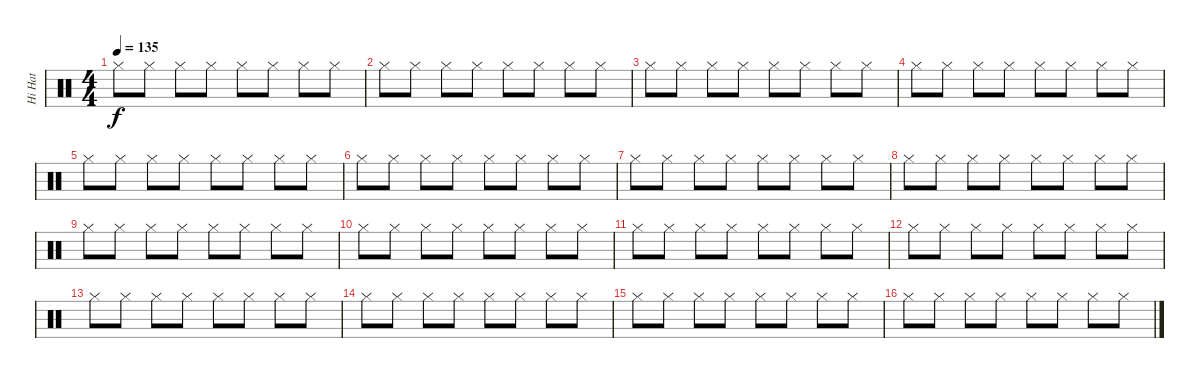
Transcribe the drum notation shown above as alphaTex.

\track ("Hi Hat" "Hi Hat") {instrument percussion}
\staff {score}
\articulation defaults
\ts (4 4)
\tempo 135
\clef neutral
\ks c "Hi-Hat (closed)".8{dy f} "Hi-Hat (closed)".8 "Hi-Hat (closed)".8 "Hi-Hat (closed)".8 "Hi-Hat (closed)".8 "Hi-Hat (closed)".8 "Hi-Hat (closed)".8 "Hi-Hat (closed)".8
|
"Hi-Hat (closed)".8 "Hi-Hat (closed)".8 "Hi-Hat (closed)".8 "Hi-Hat (closed)".8 "Hi-Hat (closed)".8 "Hi-Hat (closed)".8 "Hi-Hat (closed)".8 "Hi-Hat (closed)".8 |
"Hi-Hat (closed)".8 "Hi-Hat (closed)".8 "Hi-Hat (closed)".8 "Hi-Hat (closed)".8 "Hi-Hat (closed)".8 "Hi-Hat (closed)".8 "Hi-Hat (closed)".8 "Hi-Hat (closed)".8 |
"Hi-Hat (closed)".8 "Hi-Hat (closed)".8 "Hi-Hat (closed)".8 "Hi-Hat (closed)".8 "Hi-Hat (closed)".8 "Hi-Hat (closed)".8 "Hi-Hat (closed)".8 "Hi-Hat (closed)".8 |
"Hi-Hat (closed)".8 "Hi-Hat (closed)".8 "Hi-Hat (closed)".8 "Hi-Hat (closed)".8 "Hi-Hat (closed)".8 "Hi-Hat (closed)".8 "Hi-Hat (closed)".8 "Hi-Hat (closed)".8 |
"Hi-Hat (closed)".8 "Hi-Hat (closed)".8 "Hi-Hat (closed)".8 "Hi-Hat (closed)".8 "Hi-Hat (closed)".8 "Hi-Hat (closed)".8 "Hi-Hat (closed)".8 "Hi-Hat (closed)".8 |
"Hi-Hat (closed)".8 "Hi-Hat (closed)".8 "Hi-Hat (closed)".8 "Hi-Hat (closed)".8 "Hi-Hat (closed)".8 "Hi-Hat (closed)".8 "Hi-Hat (closed)".8 "Hi-Hat (closed)".8 |
"Hi-Hat (closed)".8 "Hi-Hat (closed)".8 "Hi-Hat (closed)".8 "Hi-Hat (closed)".8 "Hi-Hat (closed)".8 "Hi-Hat (closed)".8 "Hi-Hat (closed)".8 "Hi-Hat (closed)".8 |
"Hi-Hat (closed)".8 "Hi-Hat (closed)".8 "Hi-Hat (closed)".8 "Hi-Hat (closed)".8 "Hi-Hat (closed)".8 "Hi-Hat (closed)".8 "Hi-Hat (closed)".8 "Hi-Hat (closed)".8 |
"Hi-Hat (closed)".8 "Hi-Hat (closed)".8 "Hi-Hat (closed)".8 "Hi-Hat (closed)".8 "Hi-Hat (closed)".8 "Hi-Hat (closed)".8 "Hi-Hat (closed)".8 "Hi-Hat (closed)".8 |
"Hi-Hat (closed)".8 "Hi-Hat (closed)".8 "Hi-Hat (closed)".8 "Hi-Hat (closed)".8 "Hi-Hat (closed)".8 "Hi-Hat (closed)".8 "Hi-Hat (closed)".8 "Hi-Hat (closed)".8 |
"Hi-Hat (closed)".8 "Hi-Hat (closed)".8 "Hi-Hat (closed)".8 "Hi-Hat (closed)".8 "Hi-Hat (closed)".8 "Hi-Hat (closed)".8 "Hi-Hat (closed)".8 "Hi-Hat (closed)".8 |
"Hi-Hat (closed)".8 "Hi-Hat (closed)".8 "Hi-Hat (closed)".8 "Hi-Hat (closed)".8 "Hi-Hat (closed)".8 "Hi-Hat (closed)".8 "Hi-Hat (closed)".8 "Hi-Hat (closed)".8 |
"Hi-Hat (closed)".8 "Hi-Hat (closed)".8 "Hi-Hat (closed)".8 "Hi-Hat (closed)".8 "Hi-Hat (closed)".8 "Hi-Hat (closed)".8 "Hi-Hat (closed)".8 "Hi-Hat (closed)".8 |
"Hi-Hat (closed)".8 "Hi-Hat (closed)".8 "Hi-Hat (closed)".8 "Hi-Hat (closed)".8 "Hi-Hat (closed)".8 "Hi-Hat (closed)".8 "Hi-Hat (closed)".8 "Hi-Hat (closed)".8 |
"Hi-Hat (closed)".8 "Hi-Hat (closed)".8 "Hi-Hat (closed)".8 "Hi-Hat (closed)".8 "Hi-Hat (closed)".8 "Hi-Hat (closed)".8 "Hi-Hat (closed)".8 "Hi-Hat (closed)".8
